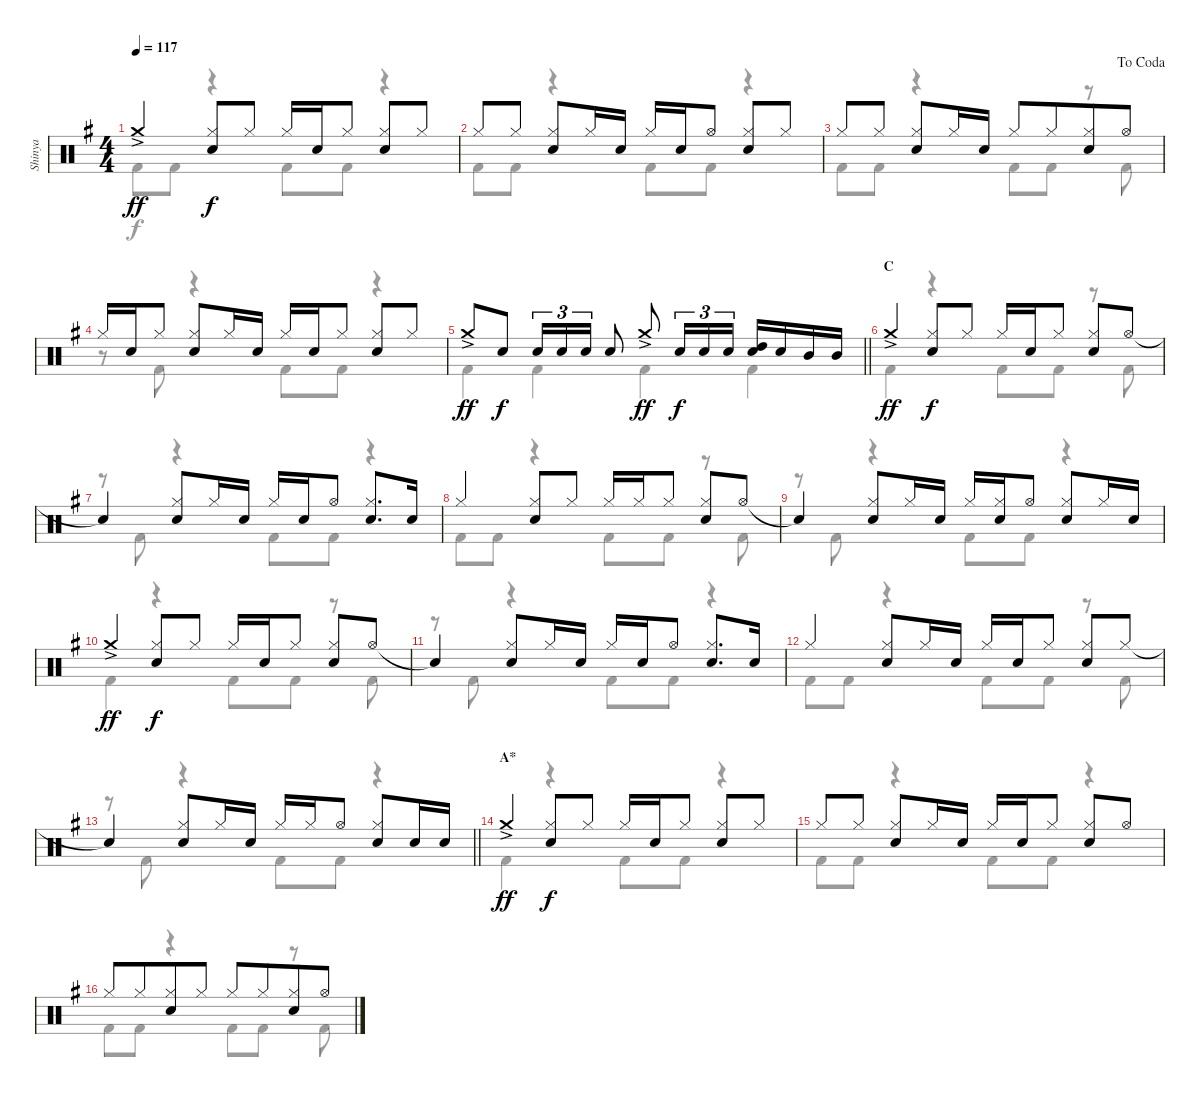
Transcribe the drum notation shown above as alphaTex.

\track ("Shinya" "Shinya") {instrument percussion}
\staff {score}
\articulation defaults
\voice
\ts (4 4)
\tempo 117
\clef neutral
\ks eminor "Crash medium (hit)"{ac}.4{dy ff}
("Hi-Hat (closed)" "Snare (hit) 2").8{dy f} "Hi-Hat (closed)".8 "Hi-Hat (closed)".16 "Snare (hit) 2".16 "Hi-Hat (closed)".8 ("Hi-Hat (closed)" "Snare (hit) 2").8 "Hi-Hat (closed)".8 |
"Hi-Hat (closed)".8 "Hi-Hat (closed)".8 ("Hi-Hat (closed)" "Snare (hit) 2").8 "Hi-Hat (closed)".16 "Snare (hit) 2".16 "Hi-Hat (closed)".16 "Snare (hit) 2".16 "Hi-Hat (open)".8 ("Hi-Hat (closed)" "Snare (hit) 2").8 "Hi-Hat (closed)".8 |
\jump dacoda "Hi-Hat (closed)".8 "Hi-Hat (closed)".8
("Hi-Hat (closed)" "Snare (hit) 2").8 "Hi-Hat (closed)".16 "Snare (hit) 2".16 "Hi-Hat (closed)".8 "Hi-Hat (closed)".8{beam merge} ("Hi-Hat (closed)" "Snare (hit) 2").8 "Hi-Hat (open)".8 |
"Hi-Hat (closed)".16 "Snare (hit) 2".16 "Hi-Hat (closed)".8 ("Hi-Hat (closed)" "Snare (hit) 2").8 "Hi-Hat (closed)".16 "Snare (hit) 2".16 "Hi-Hat (closed)".16 "Snare (hit) 2".16 "Hi-Hat (closed)".8 ("Hi-Hat (closed)" "Snare (hit) 2").8 "Hi-Hat (closed)".8 |
\barLineRight lightlight "Crash medium (hit)"{ac}.8{dy ff} "Snare (hit) 2".8{dy f} "Snare (hit) 2".16{tu (3 2)} "Snare (hit) 2".16{tu (3 2)} "Snare (hit) 2".16{tu (3 2)} "Snare (hit) 2".8 "Crash medium (hit)"{ac}.8{dy ff} "Snare (hit) 2".16{tu (3 2) dy f} "Snare (hit) 2".16{tu (3 2)} "Snare (hit) 2".16{tu (3 2)}
("High Tom (hit)" "Snare (hit) 2").16 "Snare (hit) 2".16 "Mid Tom (hit)".16 "Mid Tom (hit)".16 |
\section ("" "C")
"Crash medium (hit)"{ac}.4{dy ff} ("Hi-Hat (closed)" "Snare (hit) 2").8{dy f} "Hi-Hat (closed)".8 "Hi-Hat (closed)".16 "Snare (hit) 2".16 "Hi-Hat (closed)".8 ("Hi-Hat (closed)" "Snare (hit) 2").8 "Hi-Hat (open)".8 |
"Snare (hit)"{t}.4 ("Hi-Hat (closed)" "Snare (hit) 2").8 "Hi-Hat (closed)".16 "Snare (hit) 2".16 "Hi-Hat (closed)".16 "Snare (hit) 2".16 "Hi-Hat (open)".8 ("Hi-Hat (closed)" "Snare (hit) 2").8{d} "Snare (hit) 2".16 |
"Hi-Hat (closed)".4 ("Hi-Hat (closed)" "Snare (hit) 2").8 "Hi-Hat (closed)".8 "Hi-Hat (closed)".16 "Hi-Hat (closed)".16 "Hi-Hat (closed)".8 ("Hi-Hat (closed)" "Snare (hit) 2").8 "Hi-Hat (open)".8 |
"Snare (hit)"{t}.4 ("Hi-Hat (closed)" "Snare (hit) 2").8 "Hi-Hat (closed)".16 "Snare (hit) 2".16 "Hi-Hat (closed)".16 ("Hi-Hat (closed)" "Snare (hit) 2").16 "Hi-Hat (open)".8 ("Hi-Hat (closed)" "Snare (hit) 2").8 "Hi-Hat (closed)".16 "Snare (hit) 2".16 |
"Crash medium (hit)"{ac}.4{dy ff} ("Hi-Hat (closed)" "Snare (hit) 2").8{dy f} "Hi-Hat (closed)".8 "Hi-Hat (closed)".16 "Snare (hit) 2".16 "Hi-Hat (closed)".8 ("Hi-Hat (closed)" "Snare (hit) 2").8 "Hi-Hat (open)".8 |
"Snare (hit)"{t}.4 ("Hi-Hat (closed)" "Snare (hit) 2").8 "Hi-Hat (closed)".16 "Snare (hit) 2".16 "Hi-Hat (closed)".16 "Snare (hit) 2".16 "Hi-Hat (open)".8 ("Hi-Hat (closed)" "Snare (hit) 2").8{d} "Snare (hit) 2".16 |
"Hi-Hat (closed)".4 ("Hi-Hat (closed)" "Snare (hit) 2").8 "Hi-Hat (closed)".16 "Snare (hit) 2".16 "Hi-Hat (closed)".16 "Snare (hit) 2".16 "Hi-Hat (closed)".8 ("Hi-Hat (closed)" "Snare (hit) 2").8 "Hi-Hat (closed)".8 |
\barLineRight lightlight "Snare (hit)"{t}.4
("Hi-Hat (closed)" "Snare (hit) 2").8 "Hi-Hat (closed)".16 "Snare (hit) 2".16 "Hi-Hat (closed)".16 "Hi-Hat (closed)".16 "Hi-Hat (open)".8 ("Hi-Hat (closed)" "Snare (hit) 2").8 "Snare (hit) 2".16 "Snare (hit) 2".16 |
\section ("" "A*")
"Crash medium (hit)"{ac}.4{dy ff} ("Hi-Hat (closed)" "Snare (hit) 2").8{dy f} "Hi-Hat (closed)".8 "Hi-Hat (closed)".16 "Snare (hit) 2".16 "Hi-Hat (closed)".8 ("Hi-Hat (closed)" "Snare (hit) 2").8 "Hi-Hat (closed)".8 |
"Hi-Hat (closed)".8 "Hi-Hat (closed)".8 ("Hi-Hat (closed)" "Snare (hit) 2").8 "Hi-Hat (closed)".16 "Snare (hit) 2".16 "Hi-Hat (closed)".16 "Snare (hit) 2".16 "Hi-Hat (closed)".8 ("Hi-Hat (closed)" "Snare (hit) 2").8 "Hi-Hat (open)".8 |
"Hi-Hat (closed)".8 "Hi-Hat (closed)".8{beam merge} ("Hi-Hat (closed)" "Snare (hit) 2").8 "Hi-Hat (closed)".8 "Hi-Hat (closed)".8 "Hi-Hat (closed)".8{beam merge} ("Hi-Hat (closed)" "Snare (hit) 2").8 "Hi-Hat (open)".8
\voice
\clef neutral
\ottava regular
\simile none
\ks eminor "Kick (hit) 2".8{dy f} "Kick (hit) 2".8
r.4 "Kick (hit) 2".8 "Kick (hit) 2".8 r.4 |
"Kick (hit) 2".8 "Kick (hit) 2".8 r.4 "Kick (hit) 2".8 "Kick (hit) 2".8 r.4 |
"Kick (hit) 2".8 "Kick (hit) 2".8 r.4 "Kick (hit) 2".8 "Kick (hit) 2".8 r.8 "Kick (hit) 2".8 |
r.8 "Kick (hit) 2".8 r.4 "Kick (hit) 2".8 "Kick (hit) 2".8 r.4 |
\barLineRight lightlight "Kick (hit) 2".4 "Kick (hit) 2".4 "Kick (hit) 2".4 "Kick (hit) 2".4
|
"Kick (hit) 2".4 r.4 "Kick (hit) 2".8 "Kick (hit) 2".8 r.8 "Kick (hit) 2".8 |
r.8 "Kick (hit) 2".8 r.4 "Kick (hit) 2".8 "Kick (hit) 2".8 r.4 |
"Kick (hit) 2".8 "Kick (hit) 2".8 r.4 "Kick (hit) 2".8 "Kick (hit) 2".8 r.8 "Kick (hit) 2".8 |
r.8 "Kick (hit) 2".8 r.4 "Kick (hit) 2".8 "Kick (hit) 2".8 r.4 |
"Kick (hit) 2".4 r.4 "Kick (hit) 2".8 "Kick (hit) 2".8 r.8 "Kick (hit) 2".8 |
r.8 "Kick (hit) 2".8 r.4 "Kick (hit) 2".8 "Kick (hit) 2".8 r.4 |
"Kick (hit) 2".8 "Kick (hit) 2".8 r.4 "Kick (hit) 2".8 "Kick (hit) 2".8 r.8 "Kick (hit) 2".8 |
\barLineRight lightlight
r.8 "Kick (hit) 2".8 r.4 "Kick (hit) 2".8 "Kick (hit) 2".8 r.4 |
"Kick (hit) 2".4 r.4 "Kick (hit) 2".8 "Kick (hit) 2".8 r.4 |
"Kick (hit) 2".8 "Kick (hit) 2".8 r.4 "Kick (hit) 2".8 "Kick (hit) 2".8 r.4 |
"Kick (hit) 2".8 "Kick (hit) 2".8 r.4 "Kick (hit) 2".8 "Kick (hit) 2".8 r.8 "Kick (hit) 2".8
